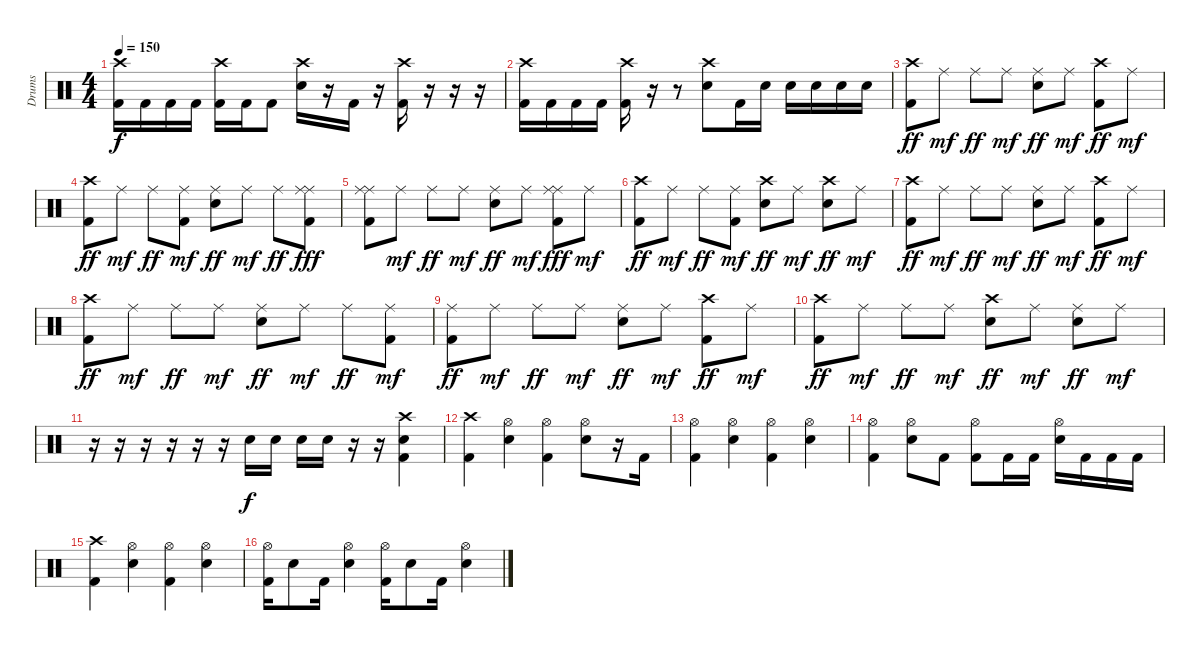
\track ("Drums" "Drums") {instrument percussion}
\staff {score}
\articulation defaults
\ts (4 4)
\tempo 150
\clef neutral
\ks c
("Crash high (hit)" "Kick (hit) 2").16{dy f} "Kick (hit) 2".16 "Kick (hit) 2".16 "Kick (hit) 2".16 ("Crash high (hit)" "Kick (hit) 2").16 "Kick (hit) 2".16 "Kick (hit) 2".8 ("Crash high (hit)" "Electric Snare (hit)").16 r.16 "Kick (hit) 2".16 r.16 ("Crash high (hit)" "Kick (hit) 2").16 r.16 r.16 r.16 |
("Crash high (hit)" "Kick (hit) 2").16 "Kick (hit) 2".16 "Kick (hit) 2".16 "Kick (hit) 2".16 ("Crash high (hit)" "Kick (hit) 2").16 r.16 r.8 ("Crash high (hit)" "Electric Snare (hit)").8 "Kick (hit) 2".16 "Electric Snare (hit)".16 "Electric Snare (hit)".16 "Electric Snare (hit)".16 "Electric Snare (hit)".16 "Electric Snare (hit)".16 |
("Crash high (hit)" "Kick (hit) 2").8{dy ff} "Ride (middle)".8{dy mf} "Ride (middle)".8{dy ff} "Ride (middle)".8{dy mf} ("Ride (middle)" "Electric Snare (hit)").8{dy ff} "Ride (middle)".8{dy mf} ("Crash high (hit)" "Kick (hit) 2").8{dy ff} "Ride (middle)".8{dy mf} |
("Crash high (hit)" "Kick (hit) 2").8{dy ff} "Ride (middle)".8{dy mf} "Ride (middle)".8{dy ff} ("Ride (middle)" "Kick (hit) 2").8{dy mf} ("Ride (middle)" "Electric Snare (hit)").8{dy ff} "Ride (middle)".8{dy mf} "Ride (middle)".8{dy ff} ("Ride (middle)" "Ride (middle)" "Kick (hit) 2").8{dy fff} |
("Ride (middle)" "Ride (middle)" "Kick (hit) 2").8 "Ride (middle)".8{dy mf} "Ride (middle)".8{dy ff} "Ride (middle)".8{dy mf} ("Ride (middle)" "Electric Snare (hit)").8{dy ff} "Ride (middle)".8{dy mf} ("Ride (middle)" "Ride (middle)" "Kick (hit) 2").8{dy fff} "Ride (middle)".8{dy mf} |
("Crash high (hit)" "Kick (hit) 2").8{dy ff} "Ride (middle)".8{dy mf} "Ride (middle)".8{dy ff} ("Ride (middle)" "Kick (hit) 2").8{dy mf} ("Crash high (hit)" "Electric Snare (hit)").8{dy ff} "Ride (middle)".8{dy mf} ("Crash high (hit)" "Electric Snare (hit)").8{dy ff} "Ride (middle)".8{dy mf} |
("Crash high (hit)" "Kick (hit) 2").8{dy ff} "Ride (middle)".8{dy mf} "Ride (middle)".8{dy ff} "Ride (middle)".8{dy mf} ("Ride (middle)" "Electric Snare (hit)").8{dy ff} "Ride (middle)".8{dy mf} ("Crash high (hit)" "Kick (hit) 2").8{dy ff} "Ride (middle)".8{dy mf} |
("Crash high (hit)" "Kick (hit) 2").8{dy ff} "Ride (middle)".8{dy mf} "Ride (middle)".8{dy ff} "Ride (middle)".8{dy mf} ("Ride (middle)" "Electric Snare (hit)").8{dy ff} "Ride (middle)".8{dy mf} "Ride (middle)".8{dy ff} ("Ride (middle)" "Kick (hit) 2").8{dy mf} |
("Ride (middle)" "Kick (hit) 2").8{dy ff} "Ride (middle)".8{dy mf} "Ride (middle)".8{dy ff} "Ride (middle)".8{dy mf} ("Ride (middle)" "Electric Snare (hit)").8{dy ff} "Ride (middle)".8{dy mf} ("Crash high (hit)" "Kick (hit) 2").8{dy ff} "Ride (middle)".8{dy mf} |
("Crash high (hit)" "Kick (hit) 2").8{dy ff} "Ride (middle)".8{dy mf} "Ride (middle)".8{dy ff} "Ride (middle)".8{dy mf} ("Crash high (hit)" "Electric Snare (hit)").8{dy ff} "Ride (middle)".8{dy mf} ("Ride (middle)" "Electric Snare (hit)").8{dy ff} "Ride (middle)".8{dy mf} |
r.16 r.16 r.16 r.16 r.16 r.16 "Electric Snare (hit)".16{dy f} "Electric Snare (hit)".16 "Electric Snare (hit)".16 "Electric Snare (hit)".16 r.16 r.16 ("Crash high (hit)" "Electric Snare (hit)" "Kick (hit) 2").4 |
("Crash high (hit)" "Kick (hit) 2").4 ("Hi-Hat (open)" "Electric Snare (hit)").4 ("Hi-Hat (open)" "Kick (hit) 2").4 ("Hi-Hat (open)" "Electric Snare (hit)").8 r.16 "Kick (hit) 2".16 |
("Hi-Hat (open)" "Kick (hit) 2").4 ("Hi-Hat (open)" "Electric Snare (hit)").4 ("Hi-Hat (open)" "Kick (hit) 2").4 ("Hi-Hat (open)" "Electric Snare (hit)").4 |
("Hi-Hat (open)" "Kick (hit) 2").4 ("Hi-Hat (open)" "Electric Snare (hit)").8 "Kick (hit) 2".8 ("Hi-Hat (open)" "Kick (hit) 2").8 "Kick (hit) 2".16 "Kick (hit) 2".16 ("Hi-Hat (open)" "Electric Snare (hit)").16 "Kick (hit) 2".16 "Kick (hit) 2".16 "Kick (hit) 2".16 |
("Crash high (hit)" "Kick (hit) 2").4 ("Hi-Hat (open)" "Electric Snare (hit)").4 ("Hi-Hat (open)" "Kick (hit) 2").4 ("Hi-Hat (open)" "Electric Snare (hit)").4 |
("Hi-Hat (open)" "Kick (hit) 2").16 "Electric Snare (hit)".8 "Kick (hit) 2".16 ("Hi-Hat (open)" "Electric Snare (hit)").4 ("Hi-Hat (open)" "Kick (hit) 2").16 "Electric Snare (hit)".8 "Kick (hit) 2".16 ("Hi-Hat (open)" "Electric Snare (hit)").4
